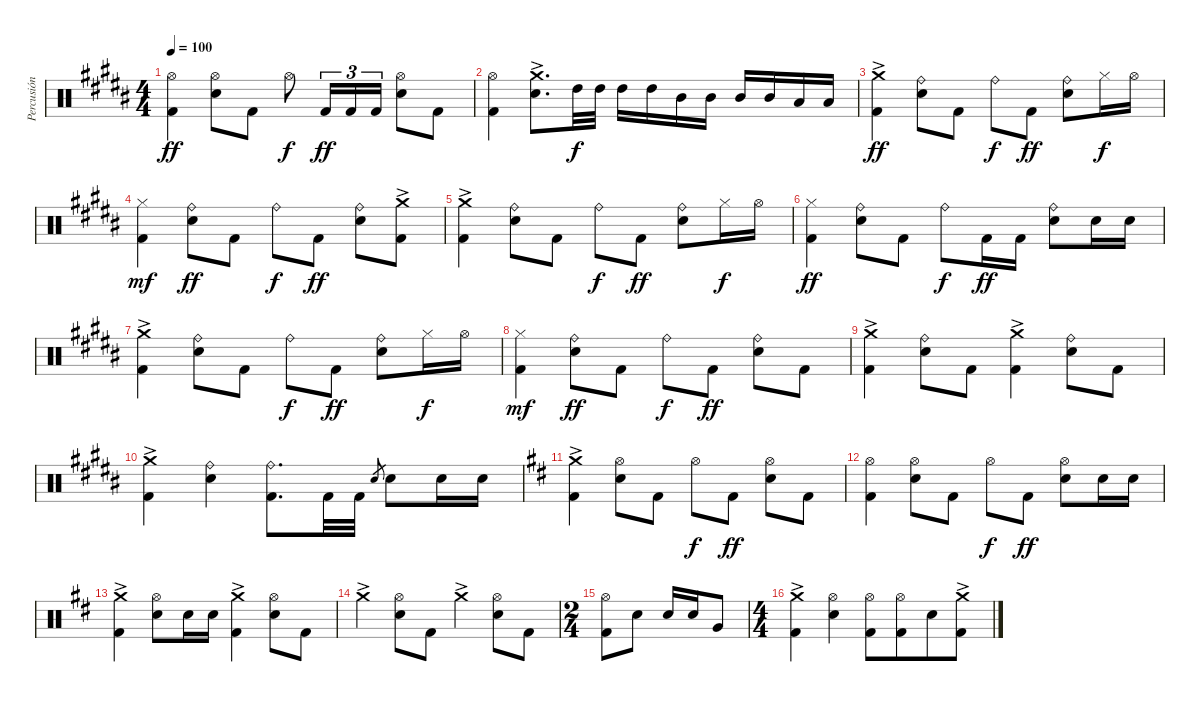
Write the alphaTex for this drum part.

\track ("Percusión" "Percusión") {instrument percussion}
\staff {score}
\articulation defaults
\ts (4 4)
\tempo 100
\clef neutral
\ks b
("Kick (hit) 2" "Hi-Hat (open)").4{dy ff} ("Electric Snare (hit)" "Hi-Hat (open)").8 "Kick (hit) 2".8 "Hi-Hat (open)".8{dy f} "Kick (hit) 2".16{tu (3 2) dy ff} "Kick (hit) 2".16{tu (3 2)} "Kick (hit) 2".16{tu (3 2)} ("Electric Snare (hit)" "Hi-Hat (open)").8 "Kick (hit) 2".8 |
("Kick (hit) 2" "Hi-Hat (open)").4 ("Electric Snare (hit)" "Crash medium (hit)"{ac}).8{d} "High Tom (hit)".32{dy f} "High Tom (hit)".32 "High Tom (hit)".16 "High Tom (hit)".16 "Mid Tom (hit)".16 "Mid Tom (hit)".16 "Mid Tom (hit)".16 "Mid Tom (hit)".16 "Low Tom (hit)".16 "Low Tom (hit)".16 |
("Kick (hit) 2" "Crash medium (hit)"{ac}).4{dy ff} ("Electric Snare (hit)" "Ride (bell)").8 "Kick (hit) 2".8 "Ride (bell)".8{dy f} "Kick (hit) 2".8{dy ff} ("Electric Snare (hit)" "Ride (bell)").8 "Hi-Hat (closed)".16{dy f} "Hi-Hat (open)".16 |
("Kick (hit) 2" "Hi-Hat (closed)").4{dy mf} ("Electric Snare (hit)" "Ride (bell)").8{dy ff} "Kick (hit) 2".8 "Ride (bell)".8{dy f} "Kick (hit) 2".8{dy ff} ("Electric Snare (hit)" "Ride (bell)").8 ("Kick (hit) 2" "Crash medium (hit)"{ac}).8 |
("Kick (hit) 2" "Crash medium (hit)"{ac}).4 ("Electric Snare (hit)" "Ride (bell)").8 "Kick (hit) 2".8 "Ride (bell)".8{dy f} "Kick (hit) 2".8{dy ff} ("Electric Snare (hit)" "Ride (bell)").8 "Hi-Hat (closed)".16{dy f} "Hi-Hat (open)".16 |
("Kick (hit) 2" "Hi-Hat (closed)").4{dy ff} ("Electric Snare (hit)" "Ride (bell)").8 "Kick (hit) 2".8 "Ride (bell)".8{dy f} "Kick (hit) 2".16{dy ff} "Kick (hit) 2".16 ("Electric Snare (hit)" "Ride (bell)").8 "Electric Snare (hit)".16 "Electric Snare (hit)".16 |
("Kick (hit) 2" "Crash medium (hit)"{ac}).4 ("Electric Snare (hit)" "Ride (bell)").8 "Kick (hit) 2".8 "Ride (bell)".8{dy f} "Kick (hit) 2".8{dy ff} ("Electric Snare (hit)" "Ride (bell)").8 "Hi-Hat (closed)".16{dy f} "Hi-Hat (open)".16 |
("Kick (hit) 2" "Hi-Hat (closed)").4{dy mf} ("Electric Snare (hit)" "Ride (bell)").8{dy ff} "Kick (hit) 2".8 "Ride (bell)".8{dy f} "Kick (hit) 2".8{dy ff} ("Electric Snare (hit)" "Ride (bell)").8 "Kick (hit) 2".8 |
("Kick (hit) 2" "Crash medium (hit)"{ac}).4 ("Electric Snare (hit)" "Ride (bell)").8 "Kick (hit) 2".8 ("Kick (hit) 2" "Crash medium (hit)"{ac}).4 ("Electric Snare (hit)" "Ride (bell)").8 "Kick (hit) 2".8 |
("Kick (hit) 2" "Crash medium (hit)"{ac}).4 ("Electric Snare (hit)" "Ride (bell)").4 ("Kick (hit) 2" "Ride (bell)").8{d} "Kick (hit) 2".32 "Kick (hit) 2".32 "Electric Snare (hit)".8{gr} "Electric Snare (hit)".8 "Electric Snare (hit)".16 "Electric Snare (hit)".16 |
\ks d
("Kick (hit) 2" "Crash medium (hit)"{ac}).4 ("Electric Snare (hit)" "Hi-Hat (open)").8 "Kick (hit) 2".8 "Hi-Hat (open)".8{dy f} "Kick (hit) 2".8{dy ff} ("Electric Snare (hit)" "Hi-Hat (open)").8 "Kick (hit) 2".8 |
("Kick (hit) 2" "Hi-Hat (open)").4 ("Electric Snare (hit)" "Hi-Hat (open)").8 "Kick (hit) 2".8 "Hi-Hat (open)".8{dy f} "Kick (hit) 2".8{dy ff} ("Electric Snare (hit)" "Hi-Hat (open)").8 "Electric Snare (hit)".16 "Electric Snare (hit)".16 |
("Kick (hit) 2" "Crash medium (hit)"{ac}).4 ("Electric Snare (hit)" "Hi-Hat (open)").8 "Electric Snare (hit)".16 "Electric Snare (hit)".16 ("Kick (hit) 2" "Crash medium (hit)"{ac}).4 ("Electric Snare (hit)" "Hi-Hat (open)").8 "Kick (hit) 2".8 |
"Crash medium (hit)"{ac}.4 ("Electric Snare (hit)" "Hi-Hat (open)").8 "Kick (hit) 2".8 "Crash medium (hit)"{ac}.4 ("Electric Snare (hit)" "Hi-Hat (open)").8 "Kick (hit) 2".8 |
\ts (2 4)
("Kick (hit) 2" "Hi-Hat (open)").8 "Electric Snare (hit)".8 "Electric Snare (hit)".16 "Electric Snare (hit)".16 "Very Low Tom (hit)".8 |
\ts (4 4)
("Kick (hit) 2" "Crash medium (hit)"{ac}).4 ("Electric Snare (hit)" "Hi-Hat (open)").4 ("Kick (hit) 2" "Hi-Hat (open)").8 ("Kick (hit) 2" "Hi-Hat (open)").8{beam merge} "Electric Snare (hit)".8 ("Kick (hit) 2" "Crash medium (hit)"{ac}).8
